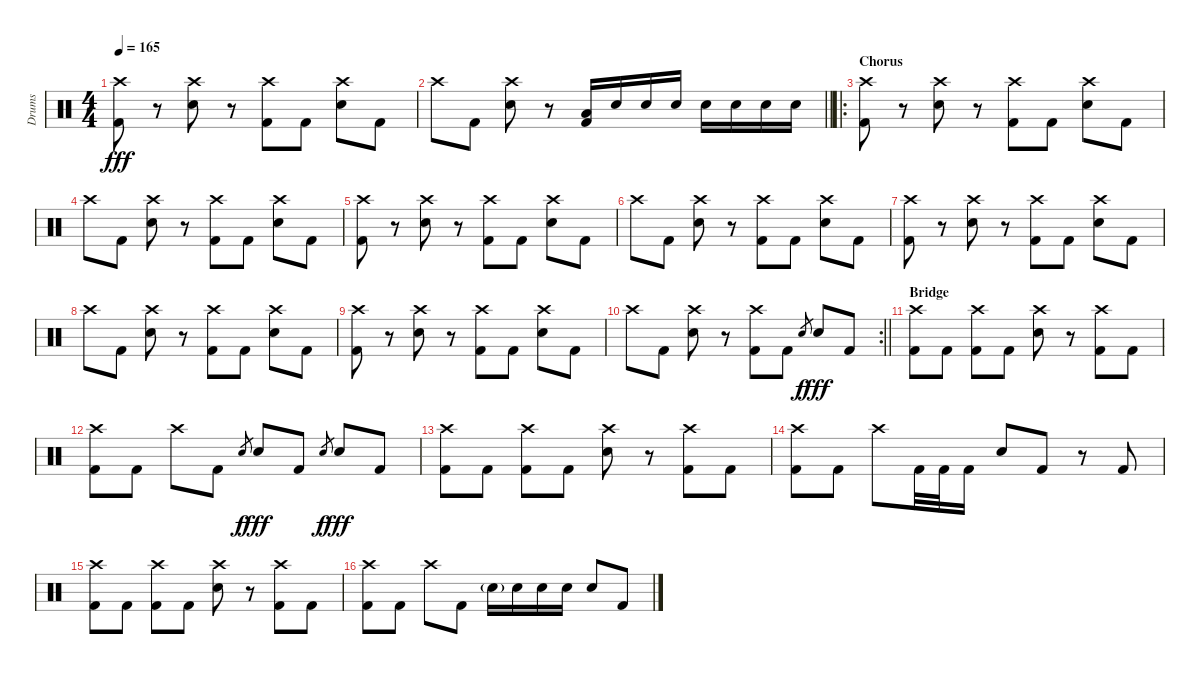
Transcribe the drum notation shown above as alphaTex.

\track ("Drums" "Drums") {instrument percussion}
\staff {score}
\articulation defaults
\ts (4 4)
\tempo 165
\clef neutral
\ks c
("Crash high (hit)" "Kick (hit) 2").8{dy fff} r.8 ("Crash high (hit)" "Electric Snare (hit)").8 r.8 ("Crash high (hit)" "Kick (hit) 2").8 "Kick (hit) 2".8 ("Crash high (hit)" "Electric Snare (hit)").8 "Kick (hit) 2".8 |
\barLineRight lightlight "Crash high (hit)".8 "Kick (hit) 2".8
("Crash high (hit)" "Electric Snare (hit)").8 r.8 ("Low Tom (hit)" "Kick (hit) 2").16 "Electric Snare (hit)".16 "Electric Snare (hit)".16 "Electric Snare (hit)".16 "Electric Snare (hit)".16 "Electric Snare (hit)".16 "Electric Snare (hit)".16 "Electric Snare (hit)".16 |
\ro
\section ("" "Chorus")
("Crash high (hit)" "Kick (hit) 2").8 r.8 ("Crash high (hit)" "Electric Snare (hit)").8 r.8 ("Crash high (hit)" "Kick (hit) 2").8 "Kick (hit) 2".8 ("Crash high (hit)" "Electric Snare (hit)").8 "Kick (hit) 2".8 |
"Crash high (hit)".8 "Kick (hit) 2".8 ("Crash high (hit)" "Electric Snare (hit)").8 r.8 ("Crash high (hit)" "Kick (hit) 2").8 "Kick (hit) 2".8 ("Crash high (hit)" "Electric Snare (hit)").8 "Kick (hit) 2".8 |
("Crash high (hit)" "Kick (hit) 2").8 r.8 ("Crash high (hit)" "Electric Snare (hit)").8 r.8 ("Crash high (hit)" "Kick (hit) 2").8 "Kick (hit) 2".8 ("Crash high (hit)" "Electric Snare (hit)").8 "Kick (hit) 2".8 |
"Crash high (hit)".8 "Kick (hit) 2".8 ("Crash high (hit)" "Electric Snare (hit)").8 r.8 ("Crash high (hit)" "Kick (hit) 2").8 "Kick (hit) 2".8 ("Crash high (hit)" "Electric Snare (hit)").8 "Kick (hit) 2".8 |
("Crash high (hit)" "Kick (hit) 2").8 r.8 ("Crash high (hit)" "Electric Snare (hit)").8 r.8 ("Crash high (hit)" "Kick (hit) 2").8 "Kick (hit) 2".8 ("Crash high (hit)" "Electric Snare (hit)").8 "Kick (hit) 2".8 |
"Crash high (hit)".8 "Kick (hit) 2".8 ("Crash high (hit)" "Electric Snare (hit)").8 r.8 ("Crash high (hit)" "Kick (hit) 2").8 "Kick (hit) 2".8 ("Crash high (hit)" "Electric Snare (hit)").8 "Kick (hit) 2".8 |
("Crash high (hit)" "Kick (hit) 2").8 r.8 ("Crash high (hit)" "Electric Snare (hit)").8 r.8 ("Crash high (hit)" "Kick (hit) 2").8 "Kick (hit) 2".8 ("Crash high (hit)" "Electric Snare (hit)").8 "Kick (hit) 2".8 |
\rc 2
\barLineRight lightlight "Crash high (hit)".8 "Kick (hit) 2".8
("Crash high (hit)" "Electric Snare (hit)").8 r.8 ("Crash high (hit)" "Kick (hit) 2").8 "Kick (hit) 2".8 "Electric Snare (hit)".8{gr dy f} "Electric Snare (hit)".8{dy fff} "Kick (hit) 2".8 |
\section ("" "Bridge")
("Crash high (hit)" "Kick (hit) 2").8 "Kick (hit) 2".8 ("Crash high (hit)" "Kick (hit) 2").8 "Kick (hit) 2".8 ("Crash high (hit)" "Electric Snare (hit)").8 r.8 ("Crash high (hit)" "Kick (hit) 2").8 "Kick (hit) 2".8 |
("Crash high (hit)" "Kick (hit) 2").8 "Kick (hit) 2".8 "Crash high (hit)".8 "Kick (hit) 2".8 "Electric Snare (hit)".8{gr dy f} "Electric Snare (hit)".8{dy fff} "Kick (hit) 2".8 "Electric Snare (hit)".8{gr dy f} "Electric Snare (hit)".8{dy fff} "Kick (hit) 2".8 |
("Crash high (hit)" "Kick (hit) 2").8 "Kick (hit) 2".8 ("Crash high (hit)" "Kick (hit) 2").8 "Kick (hit) 2".8 ("Crash high (hit)" "Electric Snare (hit)").8 r.8 ("Crash high (hit)" "Kick (hit) 2").8 "Kick (hit) 2".8 |
("Crash high (hit)" "Kick (hit) 2").8 "Kick (hit) 2".8 "Crash high (hit)".8 "Kick (hit) 2".32 "Kick (hit) 2".32 "Kick (hit) 2".16 "Electric Snare (hit)".8 "Kick (hit) 2".8 r.8 "Kick (hit) 2".8 |
("Crash high (hit)" "Kick (hit) 2").8 "Kick (hit) 2".8 ("Crash high (hit)" "Kick (hit) 2").8 "Kick (hit) 2".8 ("Crash high (hit)" "Electric Snare (hit)").8 r.8 ("Crash high (hit)" "Kick (hit) 2").8 "Kick (hit) 2".8 |
("Crash high (hit)" "Kick (hit) 2").8 "Kick (hit) 2".8 "Crash high (hit)".8 "Kick (hit) 2".8 "Electric Snare (hit)"{g}.16 "Electric Snare (hit)".16 "Electric Snare (hit)".16 "Electric Snare (hit)".16 "Electric Snare (hit)".8 "Kick (hit) 2".8
